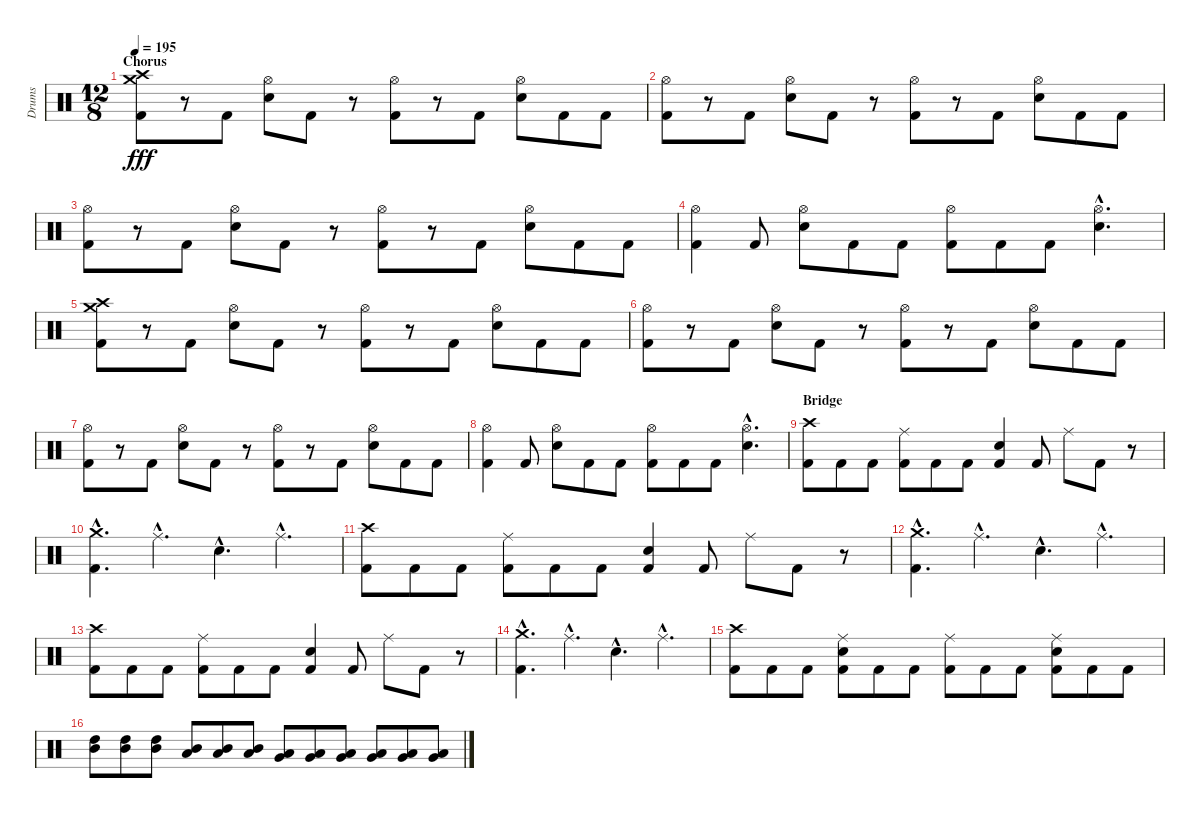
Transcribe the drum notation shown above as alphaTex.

\track ("Drums" "Drums") {instrument percussion}
\staff {score}
\articulation defaults
\ts (12 8)
\section ("" "Chorus")
\tempo 195
\clef neutral
\ks c
("Crash high (hit)" "Crash medium (hit)" "Kick (hit) 2").8{dy fff} r.8 "Kick (hit) 2".8 ("Hi-Hat (open)" "Electric Snare (hit)").8 "Kick (hit) 2".8 r.8 ("Hi-Hat (open)" "Kick (hit) 2").8 r.8 "Kick (hit) 2".8 ("Hi-Hat (open)" "Electric Snare (hit)").8 "Kick (hit) 2".8 "Kick (hit) 2".8 |
("Hi-Hat (open)" "Kick (hit) 2").8 r.8 "Kick (hit) 2".8 ("Hi-Hat (open)" "Electric Snare (hit)").8 "Kick (hit) 2".8 r.8 ("Hi-Hat (open)" "Kick (hit) 2").8 r.8 "Kick (hit) 2".8 ("Hi-Hat (open)" "Electric Snare (hit)").8 "Kick (hit) 2".8 "Kick (hit) 2".8 |
("Hi-Hat (open)" "Kick (hit) 2").8 r.8 "Kick (hit) 2".8 ("Hi-Hat (open)" "Electric Snare (hit)").8 "Kick (hit) 2".8 r.8 ("Hi-Hat (open)" "Kick (hit) 2").8 r.8 "Kick (hit) 2".8 ("Hi-Hat (open)" "Electric Snare (hit)").8 "Kick (hit) 2".8 "Kick (hit) 2".8 |
("Hi-Hat (open)" "Kick (hit) 2").4 "Kick (hit) 2".8 ("Hi-Hat (open)" "Electric Snare (hit)").8 "Kick (hit) 2".8 "Kick (hit) 2".8 ("Hi-Hat (open)" "Kick (hit) 2").8 "Kick (hit) 2".8 "Kick (hit) 2".8 ("Hi-Hat (open)"{hac} "Electric Snare (hit)"{hac}).4{d} |
("Crash high (hit)" "Crash medium (hit)" "Kick (hit) 2").8 r.8 "Kick (hit) 2".8 ("Hi-Hat (open)" "Electric Snare (hit)").8 "Kick (hit) 2".8 r.8 ("Hi-Hat (open)" "Kick (hit) 2").8 r.8 "Kick (hit) 2".8 ("Hi-Hat (open)" "Electric Snare (hit)").8 "Kick (hit) 2".8 "Kick (hit) 2".8 |
("Hi-Hat (open)" "Kick (hit) 2").8 r.8 "Kick (hit) 2".8 ("Hi-Hat (open)" "Electric Snare (hit)").8 "Kick (hit) 2".8 r.8 ("Hi-Hat (open)" "Kick (hit) 2").8 r.8 "Kick (hit) 2".8 ("Hi-Hat (open)" "Electric Snare (hit)").8 "Kick (hit) 2".8 "Kick (hit) 2".8 |
("Hi-Hat (open)" "Kick (hit) 2").8 r.8 "Kick (hit) 2".8 ("Hi-Hat (open)" "Electric Snare (hit)").8 "Kick (hit) 2".8 r.8 ("Hi-Hat (open)" "Kick (hit) 2").8 r.8 "Kick (hit) 2".8 ("Hi-Hat (open)" "Electric Snare (hit)").8 "Kick (hit) 2".8 "Kick (hit) 2".8 |
("Hi-Hat (open)" "Kick (hit) 2").4 "Kick (hit) 2".8 ("Hi-Hat (open)" "Electric Snare (hit)").8 "Kick (hit) 2".8 "Kick (hit) 2".8 ("Hi-Hat (open)" "Kick (hit) 2").8 "Kick (hit) 2".8 "Kick (hit) 2".8 ("Hi-Hat (open)"{hac} "Electric Snare (hit)"{hac}).4{d} |
\section ("" "Bridge")
("Crash high (hit)" "Kick (hit) 2").8 "Kick (hit) 2".8 "Kick (hit) 2".8 ("Ride (middle)" "Kick (hit) 2").8 "Kick (hit) 2".8 "Kick (hit) 2".8 ("Electric Snare (hit)" "Kick (hit) 2").4 "Kick (hit) 2".8 "Ride (middle)".8 "Kick (hit) 2".8 r.8 |
("Crash medium (hit)"{hac} "Kick (hit) 2"{hac}).4{d} "Ride (middle)"{hac}.4{d} "Electric Snare (hit)"{hac}.4{d} "Ride (middle)"{hac}.4{d} |
("Crash high (hit)" "Kick (hit) 2").8 "Kick (hit) 2".8 "Kick (hit) 2".8 ("Ride (middle)" "Kick (hit) 2").8 "Kick (hit) 2".8 "Kick (hit) 2".8 ("Electric Snare (hit)" "Kick (hit) 2").4 "Kick (hit) 2".8 "Ride (middle)".8 "Kick (hit) 2".8 r.8 |
("Crash medium (hit)"{hac} "Kick (hit) 2"{hac}).4{d} "Ride (middle)"{hac}.4{d} "Electric Snare (hit)"{hac}.4{d} "Ride (middle)"{hac}.4{d} |
("Crash high (hit)" "Kick (hit) 2").8 "Kick (hit) 2".8 "Kick (hit) 2".8 ("Ride (middle)" "Kick (hit) 2").8 "Kick (hit) 2".8 "Kick (hit) 2".8 ("Electric Snare (hit)" "Kick (hit) 2").4 "Kick (hit) 2".8 "Ride (middle)".8 "Kick (hit) 2".8 r.8 |
("Crash medium (hit)"{hac} "Kick (hit) 2"{hac}).4{d} "Ride (middle)"{hac}.4{d} "Electric Snare (hit)"{hac}.4{d} "Ride (middle)"{hac}.4{d} |
("Crash high (hit)" "Kick (hit) 2").8 "Kick (hit) 2".8 "Kick (hit) 2".8 ("Ride (middle)" "Electric Snare (hit)" "Kick (hit) 2").8 "Kick (hit) 2".8 "Kick (hit) 2".8 ("Ride (middle)" "Kick (hit) 2").8 "Kick (hit) 2".8 "Kick (hit) 2".8 ("Ride (middle)" "Electric Snare (hit)" "Kick (hit) 2").8 "Kick (hit) 2".8 "Kick (hit) 2".8 |
("High Tom (hit)" "Mid Tom (hit)").8 ("High Tom (hit)" "Mid Tom (hit)").8 ("High Tom (hit)" "Mid Tom (hit)").8 ("Mid Tom (hit)" "Low Tom (hit)").8 ("Mid Tom (hit)" "Low Tom (hit)").8 ("Mid Tom (hit)" "Low Tom (hit)").8 ("Low Tom (hit)" "Very Low Tom (hit)").8 ("Low Tom (hit)" "Very Low Tom (hit)").8 ("Low Tom (hit)" "Very Low Tom (hit)").8 ("Very Low Tom (hit)" "Low Floor Tom (hit)").8 ("Very Low Tom (hit)" "Low Floor Tom (hit)").8 ("Very Low Tom (hit)" "Low Floor Tom (hit)").8
